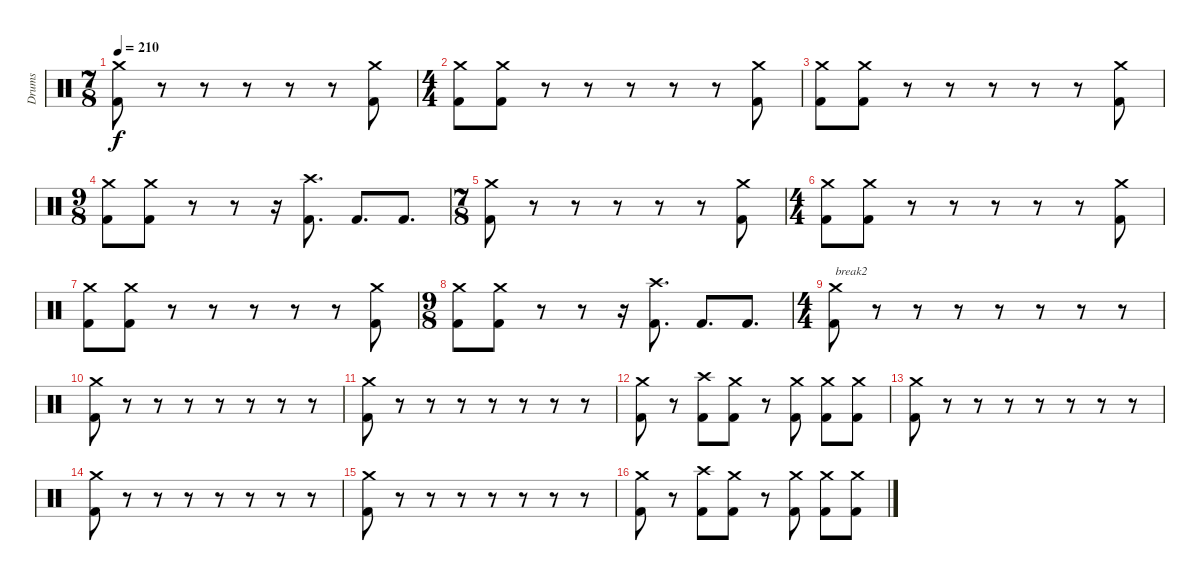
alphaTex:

\track ("Drums" "Drums") {instrument percussion}
\staff {score}
\articulation defaults
\ts (7 8)
\tempo 210
\clef neutral
\ks c
("Kick (hit) 2" "Crash medium (hit)").8{dy f} r.8 r.8 r.8 r.8 r.8 ("Kick (hit) 2" "Crash medium (hit)").8 |
\ts (4 4)
("Kick (hit) 2" "Crash medium (hit)").8 ("Kick (hit) 2" "Crash medium (hit)").8 r.8 r.8 r.8 r.8 r.8 ("Kick (hit) 2" "Crash medium (hit)").8 |
("Kick (hit) 2" "Crash medium (hit)").8 ("Kick (hit) 2" "Crash medium (hit)").8 r.8 r.8 r.8 r.8 r.8 ("Kick (hit) 2" "Crash medium (hit)").8 |
\ts (9 8)
("Kick (hit) 2" "Crash medium (hit)").8 ("Kick (hit) 2" "Crash medium (hit)").8 r.8 r.8 r.16 ("Kick (hit) 2" "Crash high (hit)").8{d} "Kick (hit) 2".8{d} "Kick (hit) 2".8{d} |
\ts (7 8)
("Kick (hit) 2" "Crash medium (hit)").8 r.8 r.8 r.8 r.8 r.8 ("Kick (hit) 2" "Crash medium (hit)").8 |
\ts (4 4)
("Kick (hit) 2" "Crash medium (hit)").8 ("Kick (hit) 2" "Crash medium (hit)").8 r.8 r.8 r.8 r.8 r.8 ("Kick (hit) 2" "Crash medium (hit)").8 |
("Kick (hit) 2" "Crash medium (hit)").8 ("Kick (hit) 2" "Crash medium (hit)").8 r.8 r.8 r.8 r.8 r.8 ("Kick (hit) 2" "Crash medium (hit)").8 |
\ts (9 8)
("Kick (hit) 2" "Crash medium (hit)").8 ("Kick (hit) 2" "Crash medium (hit)").8 r.8 r.8 r.16 ("Kick (hit) 2" "Crash high (hit)").8{d} "Kick (hit) 2".8{d} "Kick (hit) 2".8{d} |
\ts (4 4)
("Kick (hit) 2" "Crash medium (hit)").8{txt "break2"} r.8 r.8 r.8 r.8 r.8 r.8 r.8 |
("Kick (hit) 2" "Crash medium (hit)").8 r.8 r.8 r.8 r.8 r.8 r.8 r.8 |
("Crash medium (hit)" "Kick (hit) 2").8 r.8 r.8 r.8 r.8 r.8 r.8 r.8 |
("Kick (hit) 2" "Crash medium (hit)").8 r.8 ("Kick (hit) 2" "Crash high (hit)").8 ("Kick (hit) 2" "Crash medium (hit)").8 r.8 ("Kick (hit) 2" "Crash medium (hit)").8 ("Kick (hit) 2" "Crash medium (hit)").8 ("Kick (hit) 2" "Crash medium (hit)").8 |
("Kick (hit) 2" "Crash medium (hit)").8 r.8 r.8 r.8 r.8 r.8 r.8 r.8 |
("Kick (hit) 2" "Crash medium (hit)").8 r.8 r.8 r.8 r.8 r.8 r.8 r.8 |
("Crash medium (hit)" "Kick (hit) 2").8 r.8 r.8 r.8 r.8 r.8 r.8 r.8 |
("Kick (hit) 2" "Crash medium (hit)").8 r.8 ("Kick (hit) 2" "Crash high (hit)").8 ("Kick (hit) 2" "Crash medium (hit)").8 r.8 ("Kick (hit) 2" "Crash medium (hit)").8 ("Kick (hit) 2" "Crash medium (hit)").8 ("Kick (hit) 2" "Crash medium (hit)").8
